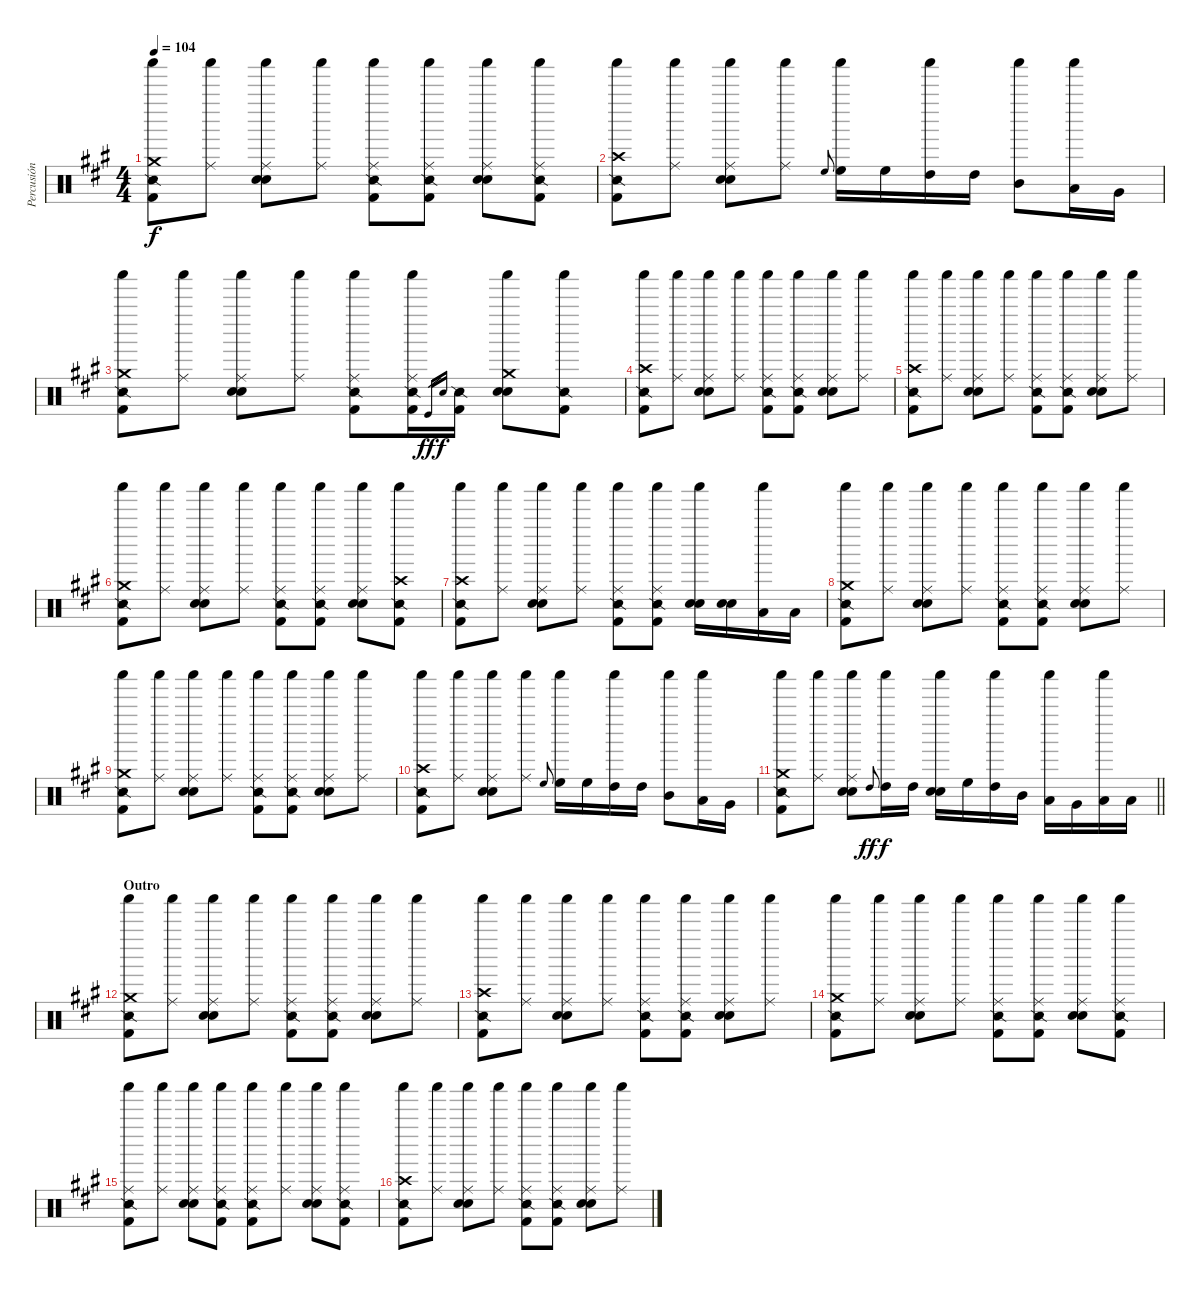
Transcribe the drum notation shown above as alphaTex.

\track ("Percusión" "Percusión") {instrument percussion}
\staff {score}
\articulation defaults
\ts (4 4)
\tempo 104
\clef neutral
\ks a
("Crash medium (hit)" "Kick (hit) 2" "Snare (side stick) 2" "Shaker (hit)").8{dy f} ("Ride (middle)" "Shaker (hit)").8 ("Ride (middle)" "Snare (hit) 2" "Electric Snare (hit)" "Shaker (hit)").8 ("Ride (middle)" "Shaker (hit)").8 ("Ride (middle)" "Kick (hit) 2" "Snare (side stick) 2" "Shaker (hit)").8 ("Ride (middle)" "Kick (hit) 2" "Snare (side stick) 2" "Shaker (hit)").8 ("Ride (middle)" "Snare (hit) 2" "Electric Snare (hit)" "Shaker (hit)").8 ("Ride (middle)" "Kick (hit) 2" "Snare (side stick) 2" "Shaker (hit)").8 |
("Crash high (hit)" "Kick (hit) 2" "Snare (side stick) 2" "Shaker (hit)").8 ("Ride (middle)" "Shaker (hit)").8 ("Ride (middle)" "Snare (hit) 2" "Electric Snare (hit)" "Shaker (hit)").8 ("Ride (middle)" "Shaker (hit)").8 "High Floor Tom (hit)".8{gr onbeat} ("High Floor Tom (hit)" "Shaker (hit)").16 "High Floor Tom (hit)".16 ("High Tom (hit)" "Shaker (hit)").16 "High Tom (hit)".16 ("Mid Tom (hit)" "Shaker (hit)").8 ("Low Tom (hit)" "Shaker (hit)").16 "Very Low Tom (hit)".16 |
("Crash medium (hit)" "Kick (hit) 2" "Snare (side stick) 2" "Shaker (hit)").8 ("Ride (middle)" "Shaker (hit)").8 ("Ride (middle)" "Snare (hit) 2" "Electric Snare (hit)" "Shaker (hit)").8 ("Ride (middle)" "Shaker (hit)").8 ("Ride (middle)" "Kick (hit) 2" "Snare (side stick) 2" "Shaker (hit)").8 ("Ride (middle)" "Kick (hit) 2" "Snare (side stick) 2" "Shaker (hit)").16 "Kick (hit)".16{gr dy ff} "Snare (hit)".16{gr dy f} ("Kick (hit) 2" "Snare (side stick) 2").16 ("Crash medium (hit)" "Snare (hit) 2" "Electric Snare (hit)" "Shaker (hit)").8 ("Kick (hit) 2" "Snare (side stick) 2" "Shaker (hit)").8 |
("Crash high (hit)" "Kick (hit) 2" "Snare (side stick) 2" "Shaker (hit)").8 ("Ride (middle)" "Shaker (hit)").8 ("Ride (middle)" "Snare (hit) 2" "Electric Snare (hit)" "Shaker (hit)").8 ("Ride (middle)" "Shaker (hit)").8 ("Ride (middle)" "Kick (hit) 2" "Snare (side stick) 2" "Shaker (hit)").8 ("Ride (middle)" "Kick (hit) 2" "Snare (side stick) 2" "Shaker (hit)").8 ("Ride (middle)" "Snare (hit) 2" "Electric Snare (hit)" "Shaker (hit)").8 ("Ride (middle)" "Shaker (hit)").8 |
("Crash high (hit)" "Kick (hit) 2" "Snare (side stick) 2" "Shaker (hit)").8 ("Ride (middle)" "Shaker (hit)").8 ("Ride (middle)" "Snare (hit) 2" "Electric Snare (hit)" "Shaker (hit)").8 ("Ride (middle)" "Shaker (hit)").8 ("Ride (middle)" "Kick (hit) 2" "Snare (side stick) 2" "Shaker (hit)").8 ("Ride (middle)" "Kick (hit) 2" "Snare (side stick) 2" "Shaker (hit)").8 ("Ride (middle)" "Snare (hit) 2" "Electric Snare (hit)" "Shaker (hit)").8 ("Ride (middle)" "Shaker (hit)").8 |
("Crash medium (hit)" "Kick (hit) 2" "Snare (side stick) 2" "Shaker (hit)").8 ("Ride (middle)" "Shaker (hit)").8 ("Ride (middle)" "Snare (hit) 2" "Electric Snare (hit)" "Shaker (hit)").8 ("Ride (middle)" "Shaker (hit)").8 ("Ride (middle)" "Kick (hit) 2" "Snare (side stick) 2" "Shaker (hit)").8 ("Ride (middle)" "Kick (hit) 2" "Snare (side stick) 2" "Shaker (hit)").8 ("Ride (middle)" "Snare (hit) 2" "Electric Snare (hit)" "Shaker (hit)").8 ("Crash high (hit)" "Kick (hit) 2" "Snare (side stick) 2" "Shaker (hit)").8 |
("Crash high (hit)" "Kick (hit) 2" "Snare (side stick) 2" "Shaker (hit)").8 ("Ride (middle)" "Shaker (hit)").8 ("Ride (middle)" "Snare (hit) 2" "Electric Snare (hit)" "Shaker (hit)").8 ("Ride (middle)" "Shaker (hit)").8 ("Ride (middle)" "Kick (hit) 2" "Snare (side stick) 2" "Shaker (hit)").8 ("Ride (middle)" "Kick (hit) 2" "Snare (side stick) 2" "Shaker (hit)").8 ("Snare (hit) 2" "Electric Snare (hit)" "Shaker (hit)").16 ("Snare (hit) 2" "Electric Snare (hit)").16 ("Low Tom (hit)" "Shaker (hit)").16 "Low Tom (hit)".16 |
("Crash medium (hit)" "Kick (hit) 2" "Snare (side stick) 2" "Shaker (hit)").8 ("Ride (middle)" "Shaker (hit)").8 ("Ride (middle)" "Snare (hit) 2" "Electric Snare (hit)" "Shaker (hit)").8 ("Ride (middle)" "Shaker (hit)").8 ("Ride (middle)" "Kick (hit) 2" "Snare (side stick) 2" "Shaker (hit)").8 ("Ride (middle)" "Kick (hit) 2" "Snare (side stick) 2" "Shaker (hit)").8 ("Ride (middle)" "Snare (hit) 2" "Electric Snare (hit)" "Shaker (hit)").8 ("Ride (middle)" "Shaker (hit)").8 |
("Crash medium (hit)" "Kick (hit) 2" "Snare (side stick) 2" "Shaker (hit)").8 ("Ride (middle)" "Shaker (hit)").8 ("Ride (middle)" "Snare (hit) 2" "Electric Snare (hit)" "Shaker (hit)").8 ("Ride (middle)" "Shaker (hit)").8 ("Ride (middle)" "Kick (hit) 2" "Snare (side stick) 2" "Shaker (hit)").8 ("Ride (middle)" "Kick (hit) 2" "Snare (side stick) 2" "Shaker (hit)").8 ("Ride (middle)" "Snare (hit) 2" "Electric Snare (hit)" "Shaker (hit)").8 ("Ride (middle)" "Shaker (hit)").8 |
("Crash high (hit)" "Kick (hit) 2" "Snare (side stick) 2" "Shaker (hit)").8 ("Ride (middle)" "Shaker (hit)").8 ("Ride (middle)" "Snare (hit) 2" "Electric Snare (hit)" "Shaker (hit)").8 ("Ride (middle)" "Shaker (hit)").8 "High Floor Tom (hit)".8{gr onbeat} ("High Floor Tom (hit)" "Shaker (hit)").16 "High Floor Tom (hit)".16 ("High Tom (hit)" "Shaker (hit)").16 "High Tom (hit)".16 ("Mid Tom (hit)" "Shaker (hit)").8 ("Low Tom (hit)" "Shaker (hit)").16 "Very Low Tom (hit)".16 |
\barLineRight lightlight
("Crash medium (hit)" "Kick (hit) 2" "Snare (side stick) 2" "Shaker (hit)").8 ("Ride (middle)" "Shaker (hit)").8 ("Ride (middle)" "Snare (hit) 2" "Electric Snare (hit)" "Shaker (hit)").8 "High Tom (hit)".8{gr onbeat dy ff} ("High Tom (hit)" "Shaker (hit)").16{dy f} "High Tom (hit)".16 ("Snare (hit) 2" "Electric Snare (hit)" "Shaker (hit)").16 "High Floor Tom (hit)".16 ("High Tom (hit)" "Shaker (hit)").16 "Mid Tom (hit)".16 ("Low Tom (hit)" "Shaker (hit)").16 "Very Low Tom (hit)".16 ("Low Floor Tom (hit)" "Shaker (hit)").16 "Low Floor Tom (hit)".16 |
\section ("" "Outro")
("Crash medium (hit)" "Kick (hit) 2" "Snare (side stick) 2" "Shaker (hit)").8 ("Ride (middle)" "Shaker (hit)").8 ("Ride (middle)" "Snare (hit) 2" "Electric Snare (hit)" "Shaker (hit)").8 ("Ride (middle)" "Shaker (hit)").8 ("Ride (middle)" "Kick (hit) 2" "Snare (side stick) 2" "Shaker (hit)").8 ("Ride (middle)" "Kick (hit) 2" "Snare (side stick) 2" "Shaker (hit)").8 ("Ride (middle)" "Snare (hit) 2" "Electric Snare (hit)" "Shaker (hit)").8 ("Ride (middle)" "Shaker (hit)").8 |
("Crash high (hit)" "Kick (hit) 2" "Snare (side stick) 2" "Shaker (hit)").8 ("Ride (middle)" "Shaker (hit)").8 ("Ride (middle)" "Snare (hit) 2" "Electric Snare (hit)" "Shaker (hit)").8 ("Ride (middle)" "Shaker (hit)").8 ("Ride (middle)" "Kick (hit) 2" "Snare (side stick) 2" "Shaker (hit)").8 ("Ride (middle)" "Kick (hit) 2" "Snare (side stick) 2" "Shaker (hit)").8 ("Ride (middle)" "Snare (hit) 2" "Electric Snare (hit)" "Shaker (hit)").8 ("Ride (middle)" "Shaker (hit)").8 |
("Crash medium (hit)" "Kick (hit) 2" "Snare (side stick) 2" "Shaker (hit)").8 ("Ride (middle)" "Shaker (hit)").8 ("Ride (middle)" "Snare (hit) 2" "Electric Snare (hit)" "Shaker (hit)").8 ("Ride (middle)" "Shaker (hit)").8 ("Ride (middle)" "Kick (hit) 2" "Snare (side stick) 2" "Shaker (hit)").8 ("Ride (middle)" "Kick (hit) 2" "Snare (side stick) 2" "Shaker (hit)").8 ("Ride (middle)" "Snare (hit) 2" "Electric Snare (hit)" "Shaker (hit)").8 ("Ride (middle)" "Kick (hit) 2" "Snare (side stick) 2" "Shaker (hit)").8 |
("Ride (middle)" "Kick (hit) 2" "Snare (side stick) 2" "Shaker (hit)").8 ("Ride (middle)" "Shaker (hit)").8 ("Ride (middle)" "Snare (hit) 2" "Electric Snare (hit)" "Shaker (hit)").8 ("Ride (middle)" "Kick (hit) 2" "Snare (side stick) 2" "Shaker (hit)").8 ("Ride (middle)" "Kick (hit) 2" "Snare (side stick) 2" "Shaker (hit)").8 ("Ride (middle)" "Shaker (hit)").8 ("Ride (middle)" "Snare (hit) 2" "Electric Snare (hit)" "Shaker (hit)").8 ("Ride (middle)" "Kick (hit) 2" "Snare (side stick) 2" "Shaker (hit)").8 |
("Crash high (hit)" "Kick (hit) 2" "Snare (side stick) 2" "Shaker (hit)").8 ("Ride (middle)" "Shaker (hit)").8 ("Ride (middle)" "Snare (hit) 2" "Electric Snare (hit)" "Shaker (hit)").8 ("Ride (middle)" "Shaker (hit)").8 ("Ride (middle)" "Kick (hit) 2" "Snare (side stick) 2" "Shaker (hit)").8 ("Ride (middle)" "Kick (hit) 2" "Snare (side stick) 2" "Shaker (hit)").8 ("Ride (middle)" "Snare (hit) 2" "Electric Snare (hit)" "Shaker (hit)").8 ("Ride (middle)" "Shaker (hit)").8
